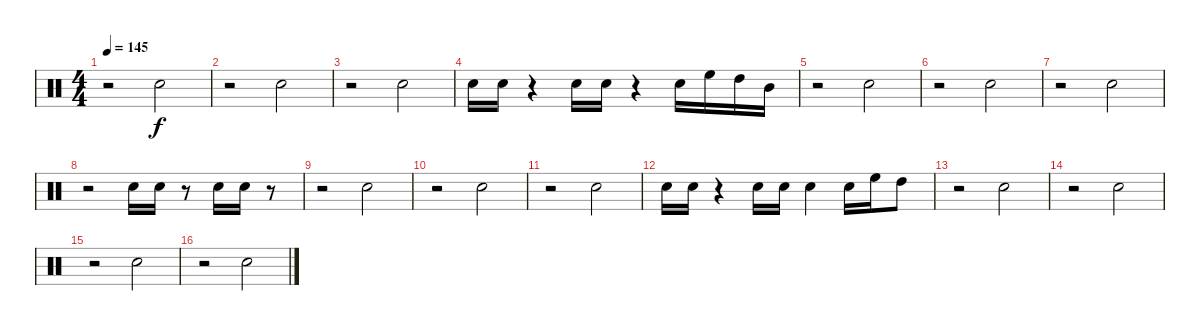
\track "" {instrument percussion}
\staff {score}
\articulation defaults
\ts (4 4)
\tempo 145
\clef neutral
\ks c
r.2{dy f} "Electric Snare (hit)".2 |
r.2 "Electric Snare (hit)".2 |
r.2 "Electric Snare (hit)".2 |
"Electric Snare (hit)".16 "Electric Snare (hit)".16 r.4 "Electric Snare (hit)".16 "Electric Snare (hit)".16 r.4 "Electric Snare (hit)".16 "High Floor Tom (hit)".16 "High Tom (hit)".16 "Mid Tom (hit)".16 |
r.2 "Electric Snare (hit)".2 |
r.2 "Electric Snare (hit)".2 |
r.2 "Electric Snare (hit)".2 |
r.2 "Electric Snare (hit)".16 "Electric Snare (hit)".16 r.8 "Electric Snare (hit)".16 "Electric Snare (hit)".16 r.8 |
r.2 "Electric Snare (hit)".2 |
r.2 "Electric Snare (hit)".2 |
r.2 "Electric Snare (hit)".2 |
"Electric Snare (hit)".16 "Electric Snare (hit)".16 r.4 "Electric Snare (hit)".16 "Electric Snare (hit)".16 "Electric Snare (hit)".4 "Electric Snare (hit)".16 "High Floor Tom (hit)".16 "High Tom (hit)".8 |
r.2 "Electric Snare (hit)".2 |
r.2 "Electric Snare (hit)".2 |
r.2 "Electric Snare (hit)".2 |
r.2 "Electric Snare (hit)".2
